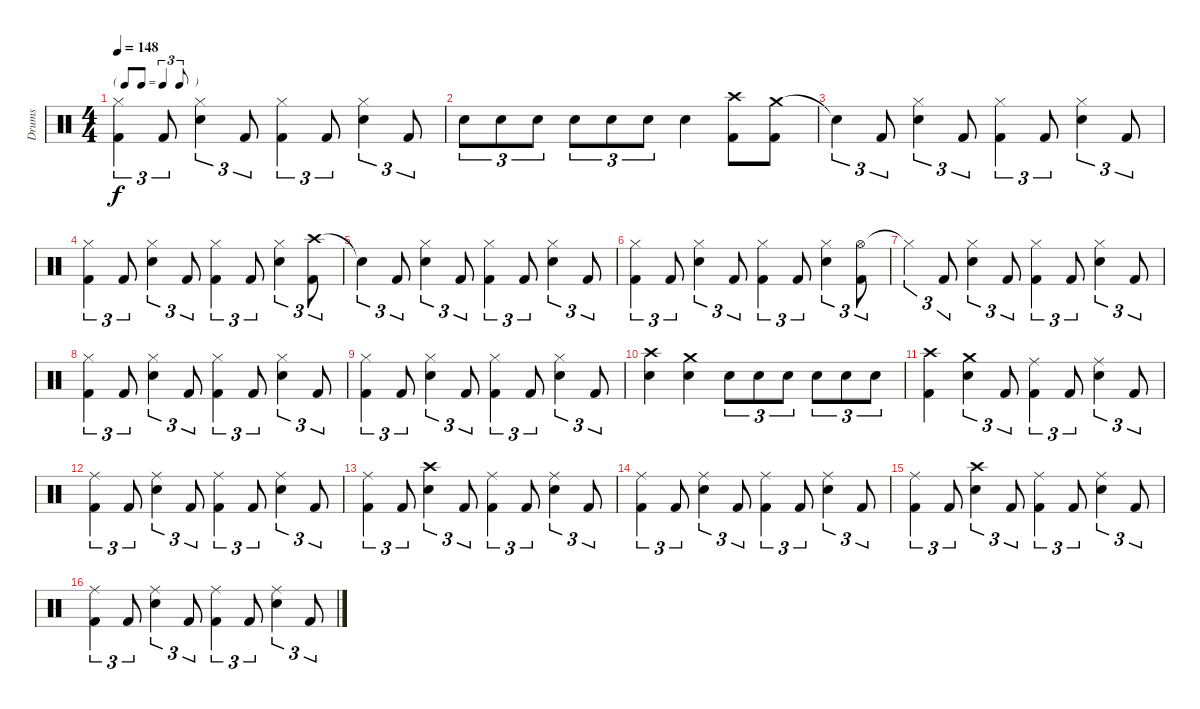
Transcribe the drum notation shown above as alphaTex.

\track ("Drums" "Drums") {instrument percussion}
\staff {score}
\articulation defaults
\ts (4 4)
\tf triplet8th
\tempo 148
\clef neutral
\ks c
("Hi-Hat (closed)" "Kick (hit) 2").4{tu (3 2) dy f} "Kick (hit) 2".8{tu (3 2)} ("Hi-Hat (closed)" "Snare (hit) 2").4{tu (3 2)} "Kick (hit) 2".8{tu (3 2)} ("Hi-Hat (closed)" "Kick (hit) 2").4{tu (3 2)} "Kick (hit) 2".8{tu (3 2)} ("Hi-Hat (closed)" "Snare (hit) 2").4{tu (3 2)} "Kick (hit) 2".8{tu (3 2)} |
"Snare (hit) 2".8{tu (3 2)} "Snare (hit) 2".8{tu (3 2)} "Snare (hit) 2".8{tu (3 2)} "Snare (hit) 2".8{tu (3 2)} "Snare (hit) 2".8{tu (3 2)} "Snare (hit) 2".8{tu (3 2)} "Snare (hit) 2".4 ("Crash high (hit)" "Kick (hit) 2").8 ("Crash medium (hit)" "Kick (hit) 2").8 |
"Snare (hit)"{t}.4{tu (3 2)} "Kick (hit) 2".8{tu (3 2)} ("Hi-Hat (closed)" "Snare (hit) 2").4{tu (3 2)} "Kick (hit) 2".8{tu (3 2)} ("Hi-Hat (closed)" "Kick (hit) 2").4{tu (3 2)} "Kick (hit) 2".8{tu (3 2)} ("Hi-Hat (closed)" "Snare (hit) 2").4{tu (3 2)} "Kick (hit) 2".8{tu (3 2)} |
("Hi-Hat (closed)" "Kick (hit) 2").4{tu (3 2)} "Kick (hit) 2".8{tu (3 2)} ("Hi-Hat (closed)" "Snare (hit) 2").4{tu (3 2)} "Kick (hit) 2".8{tu (3 2)} ("Hi-Hat (closed)" "Kick (hit) 2").4{tu (3 2)} "Kick (hit) 2".8{tu (3 2)} ("Hi-Hat (closed)" "Snare (hit) 2").4{tu (3 2)} ("Crash high (hit)" "Kick (hit) 2").8{tu (3 2)} |
"Snare (hit)"{t}.4{tu (3 2)} "Kick (hit) 2".8{tu (3 2)} ("Hi-Hat (closed)" "Snare (hit) 2").4{tu (3 2)} "Kick (hit) 2".8{tu (3 2)} ("Hi-Hat (closed)" "Kick (hit) 2").4{tu (3 2)} "Kick (hit) 2".8{tu (3 2)} ("Hi-Hat (closed)" "Snare (hit) 2").4{tu (3 2)} "Kick (hit) 2".8{tu (3 2)} |
("Hi-Hat (closed)" "Kick (hit) 2").4{tu (3 2)} "Kick (hit) 2".8{tu (3 2)} ("Hi-Hat (closed)" "Snare (hit) 2").4{tu (3 2)} "Kick (hit) 2".8{tu (3 2)} ("Hi-Hat (closed)" "Kick (hit) 2").4{tu (3 2)} "Kick (hit) 2".8{tu (3 2)} ("Hi-Hat (closed)" "Snare (hit) 2").4{tu (3 2)} ("Hi-Hat (open)" "Kick (hit) 2").8{tu (3 2)} |
"Hi-Hat (closed)"{t}.4{tu (3 2)} "Kick (hit) 2".8{tu (3 2)} ("Hi-Hat (closed)" "Snare (hit) 2").4{tu (3 2)} "Kick (hit) 2".8{tu (3 2)} ("Hi-Hat (closed)" "Kick (hit) 2").4{tu (3 2)} "Kick (hit) 2".8{tu (3 2)} ("Hi-Hat (closed)" "Snare (hit) 2").4{tu (3 2)} "Kick (hit) 2".8{tu (3 2)} |
("Hi-Hat (closed)" "Kick (hit) 2").4{tu (3 2)} "Kick (hit) 2".8{tu (3 2)} ("Hi-Hat (closed)" "Snare (hit) 2").4{tu (3 2)} "Kick (hit) 2".8{tu (3 2)} ("Hi-Hat (closed)" "Kick (hit) 2").4{tu (3 2)} "Kick (hit) 2".8{tu (3 2)} ("Hi-Hat (closed)" "Snare (hit) 2").4{tu (3 2)} "Kick (hit) 2".8{tu (3 2)} |
("Hi-Hat (closed)" "Kick (hit) 2").4{tu (3 2)} "Kick (hit) 2".8{tu (3 2)} ("Hi-Hat (closed)" "Snare (hit) 2").4{tu (3 2)} "Kick (hit) 2".8{tu (3 2)} ("Hi-Hat (closed)" "Kick (hit) 2").4{tu (3 2)} "Kick (hit) 2".8{tu (3 2)} ("Hi-Hat (closed)" "Snare (hit) 2").4{tu (3 2)} "Kick (hit) 2".8{tu (3 2)} |
("Crash high (hit)" "Snare (hit) 2").4 ("Crash medium (hit)" "Snare (hit) 2").4 "Snare (hit) 2".8{tu (3 2)} "Snare (hit) 2".8{tu (3 2)} "Snare (hit) 2".8{tu (3 2)} "Snare (hit) 2".8{tu (3 2)} "Snare (hit) 2".8{tu (3 2)} "Snare (hit) 2".8{tu (3 2)} |
("Crash high (hit)" "Kick (hit) 2").4 ("Crash medium (hit)" "Snare (hit) 2").4{tu (3 2)} "Kick (hit) 2".8{tu (3 2)} ("Ride (middle)" "Kick (hit) 2").4{tu (3 2)} "Kick (hit) 2".8{tu (3 2)} ("Ride (middle)" "Snare (hit) 2").4{tu (3 2)} "Kick (hit) 2".8{tu (3 2)} |
("Ride (middle)" "Kick (hit) 2").4{tu (3 2)} "Kick (hit) 2".8{tu (3 2)} ("Ride (middle)" "Snare (hit) 2").4{tu (3 2)} "Kick (hit) 2".8{tu (3 2)} ("Ride (middle)" "Kick (hit) 2").4{tu (3 2)} "Kick (hit) 2".8{tu (3 2)} ("Ride (middle)" "Snare (hit) 2").4{tu (3 2)} "Kick (hit) 2".8{tu (3 2)} |
("Ride (middle)" "Kick (hit) 2").4{tu (3 2)} "Kick (hit) 2".8{tu (3 2)} ("Crash high (hit)" "Snare (hit) 2").4{tu (3 2)} "Kick (hit) 2".8{tu (3 2)} ("Ride (middle)" "Kick (hit) 2").4{tu (3 2)} "Kick (hit) 2".8{tu (3 2)} ("Ride (middle)" "Snare (hit) 2").4{tu (3 2)} "Kick (hit) 2".8{tu (3 2)} |
("Ride (middle)" "Kick (hit) 2").4{tu (3 2)} "Kick (hit) 2".8{tu (3 2)} ("Ride (middle)" "Snare (hit) 2").4{tu (3 2)} "Kick (hit) 2".8{tu (3 2)} ("Ride (middle)" "Kick (hit) 2").4{tu (3 2)} "Kick (hit) 2".8{tu (3 2)} ("Ride (middle)" "Snare (hit) 2").4{tu (3 2)} "Kick (hit) 2".8{tu (3 2)} |
("Ride (middle)" "Kick (hit) 2").4{tu (3 2)} "Kick (hit) 2".8{tu (3 2)} ("Crash high (hit)" "Snare (hit) 2").4{tu (3 2)} "Kick (hit) 2".8{tu (3 2)} ("Ride (middle)" "Kick (hit) 2").4{tu (3 2)} "Kick (hit) 2".8{tu (3 2)} ("Ride (middle)" "Snare (hit) 2").4{tu (3 2)} "Kick (hit) 2".8{tu (3 2)} |
("Ride (middle)" "Kick (hit) 2").4{tu (3 2)} "Kick (hit) 2".8{tu (3 2)} ("Ride (middle)" "Snare (hit) 2").4{tu (3 2)} "Kick (hit) 2".8{tu (3 2)} ("Ride (middle)" "Kick (hit) 2").4{tu (3 2)} "Kick (hit) 2".8{tu (3 2)} ("Ride (middle)" "Snare (hit) 2").4{tu (3 2)} "Kick (hit) 2".8{tu (3 2)}
